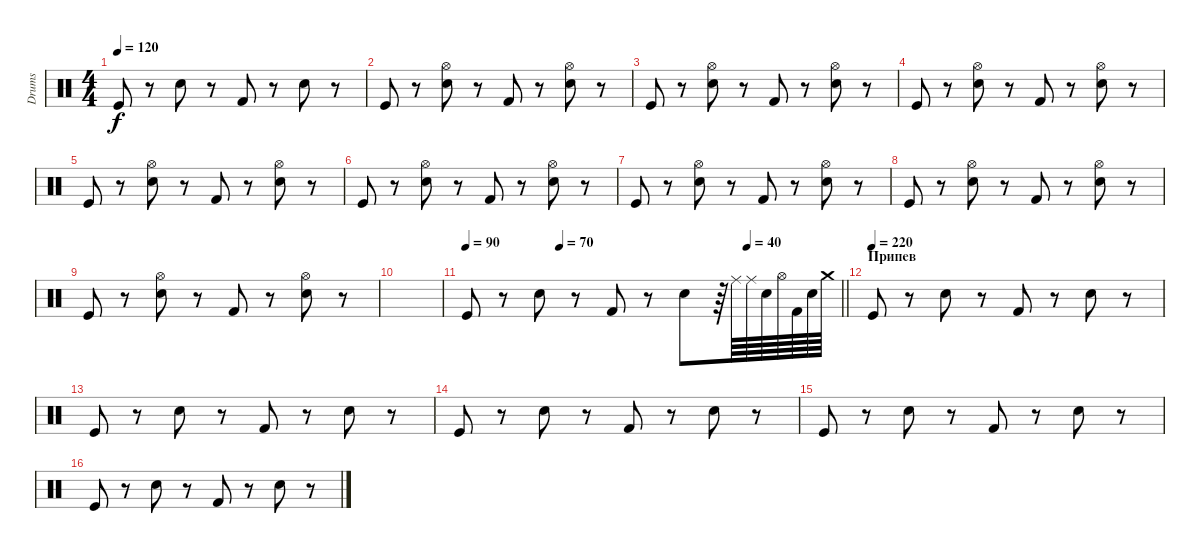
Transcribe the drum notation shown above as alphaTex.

\track ("Drums" "Drums") {instrument percussion}
\staff {score}
\articulation defaults
\ts (4 4)
\tempo 120
\clef neutral
\ks c "Kick (hit)".8{dy f}
r.8 "Electric Snare (hit)".8 r.8 "Kick (hit) 2".8 r.8 "Electric Snare (hit)".8 r.8 |
"Kick (hit)".8 r.8 ("Hi-Hat (open)" "Electric Snare (hit)").8 r.8 "Kick (hit) 2".8 r.8 ("Hi-Hat (open)" "Electric Snare (hit)").8 r.8 |
"Kick (hit)".8 r.8 ("Hi-Hat (open)" "Electric Snare (hit)").8 r.8 "Kick (hit) 2".8 r.8 ("Hi-Hat (open)" "Electric Snare (hit)").8 r.8 |
"Kick (hit)".8 r.8 ("Hi-Hat (open)" "Electric Snare (hit)").8 r.8 "Kick (hit) 2".8 r.8 ("Hi-Hat (open)" "Electric Snare (hit)").8 r.8 |
"Kick (hit)".8 r.8 ("Hi-Hat (open)" "Electric Snare (hit)").8 r.8 "Kick (hit) 2".8 r.8 ("Hi-Hat (open)" "Electric Snare (hit)").8 r.8 |
"Kick (hit)".8 r.8 ("Hi-Hat (open)" "Electric Snare (hit)").8 r.8 "Kick (hit) 2".8 r.8 ("Hi-Hat (open)" "Electric Snare (hit)").8 r.8 |
"Kick (hit)".8 r.8 ("Hi-Hat (open)" "Electric Snare (hit)").8 r.8 "Kick (hit) 2".8 r.8 ("Hi-Hat (open)" "Electric Snare (hit)").8 r.8 |
"Kick (hit)".8 r.8 ("Hi-Hat (open)" "Electric Snare (hit)").8 r.8 "Kick (hit) 2".8 r.8 ("Hi-Hat (open)" "Electric Snare (hit)").8 r.8 |
"Kick (hit)".8 r.8 ("Hi-Hat (open)" "Electric Snare (hit)").8 r.8 "Kick (hit) 2".8 r.8 ("Hi-Hat (open)" "Electric Snare (hit)").8 r.8 |
|
\tempo 90
\tempo (70 0.25)
\tempo (40 0.75)
\barLineRight lightlight "Kick (hit)".8
r.8 "Electric Snare (hit)".8 r.8 "Kick (hit) 2".8 r.8 "Electric Snare (hit)".8 r.64 "Ride (middle)".64 "Ride (middle)".64 "Electric Snare (hit)".64 "Hi-Hat (open)".64 "Kick (hit) 2".64 "Electric Snare (hit)".64 "Crash medium (hit)".64 |
\section ("" "Припев")
\tempo (220)
"Kick (hit)".8 r.8 "Electric Snare (hit)".8 r.8 "Kick (hit) 2".8 r.8 "Electric Snare (hit)".8 r.8 |
"Kick (hit)".8 r.8 "Electric Snare (hit)".8 r.8 "Kick (hit) 2".8 r.8 "Electric Snare (hit)".8 r.8 |
"Kick (hit)".8 r.8 "Electric Snare (hit)".8 r.8 "Kick (hit) 2".8 r.8 "Electric Snare (hit)".8 r.8 |
"Kick (hit)".8 r.8 "Electric Snare (hit)".8 r.8 "Kick (hit) 2".8 r.8 "Electric Snare (hit)".8 r.8 |
"Kick (hit)".8 r.8 "Electric Snare (hit)".8 r.8 "Kick (hit) 2".8 r.8 "Electric Snare (hit)".8 r.8
